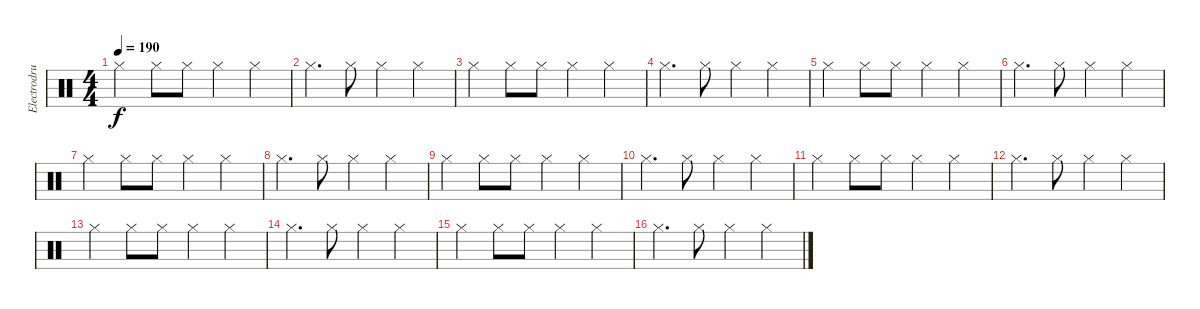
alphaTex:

\track ("Electrodrums1" "Electrodru") {instrument percussion}
\staff {score}
\articulation defaults
\ts (4 4)
\tempo 190
\clef neutral
\ks c "Hi-Hat (closed)".4{dy f} "Hi-Hat (closed)".8 "Hi-Hat (closed)".8 "Hi-Hat (closed)".4 "Hi-Hat (closed)".4
|
"Hi-Hat (closed)".4{d} "Hi-Hat (closed)".8 "Hi-Hat (closed)".4 "Hi-Hat (closed)".4 |
"Hi-Hat (closed)".4 "Hi-Hat (closed)".8 "Hi-Hat (closed)".8 "Hi-Hat (closed)".4 "Hi-Hat (closed)".4 |
"Hi-Hat (closed)".4{d} "Hi-Hat (closed)".8 "Hi-Hat (closed)".4 "Hi-Hat (closed)".4 |
"Hi-Hat (closed)".4 "Hi-Hat (closed)".8 "Hi-Hat (closed)".8 "Hi-Hat (closed)".4 "Hi-Hat (closed)".4 |
"Hi-Hat (closed)".4{d} "Hi-Hat (closed)".8 "Hi-Hat (closed)".4 "Hi-Hat (closed)".4 |
"Hi-Hat (closed)".4 "Hi-Hat (closed)".8 "Hi-Hat (closed)".8 "Hi-Hat (closed)".4 "Hi-Hat (closed)".4 |
"Hi-Hat (closed)".4{d} "Hi-Hat (closed)".8 "Hi-Hat (closed)".4 "Hi-Hat (closed)".4 |
"Hi-Hat (closed)".4 "Hi-Hat (closed)".8 "Hi-Hat (closed)".8 "Hi-Hat (closed)".4 "Hi-Hat (closed)".4 |
"Hi-Hat (closed)".4{d} "Hi-Hat (closed)".8 "Hi-Hat (closed)".4 "Hi-Hat (closed)".4 |
"Hi-Hat (closed)".4 "Hi-Hat (closed)".8 "Hi-Hat (closed)".8 "Hi-Hat (closed)".4 "Hi-Hat (closed)".4 |
"Hi-Hat (closed)".4{d} "Hi-Hat (closed)".8 "Hi-Hat (closed)".4 "Hi-Hat (closed)".4 |
"Hi-Hat (closed)".4 "Hi-Hat (closed)".8 "Hi-Hat (closed)".8 "Hi-Hat (closed)".4 "Hi-Hat (closed)".4 |
"Hi-Hat (closed)".4{d} "Hi-Hat (closed)".8 "Hi-Hat (closed)".4 "Hi-Hat (closed)".4 |
"Hi-Hat (closed)".4 "Hi-Hat (closed)".8 "Hi-Hat (closed)".8 "Hi-Hat (closed)".4 "Hi-Hat (closed)".4 |
"Hi-Hat (closed)".4{d} "Hi-Hat (closed)".8 "Hi-Hat (closed)".4 "Hi-Hat (closed)".4
